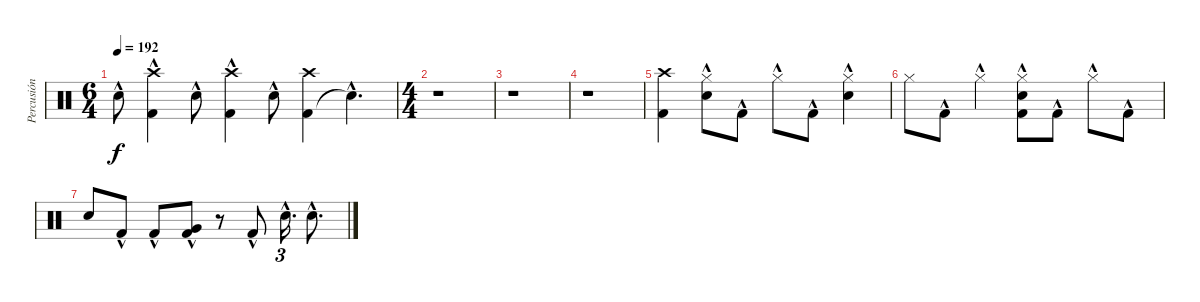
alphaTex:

\track ("Percusión" "Percusión") {instrument percussion}
\staff {score}
\articulation defaults
\ts (6 4)
\tempo 192
\clef neutral
\ks c "Electric Snare (hit)"{hac}.8{dy f}
("Kick (hit) 2"{hac} "Crash high (hit)"{hac}).4 "Electric Snare (hit)"{hac}.8 ("Crash high (hit)"{hac} "Kick (hit) 2"{hac}).4 "Electric Snare (hit)"{hac}.8 ("Kick (hit) 2" "Crash high (hit)").4 "Snare (hit)"{hac t}.4{d} |
\ts (4 4)
r.1 |
r.1 |
r.1 |
("Kick (hit) 2" "Crash high (hit)").4 ("Electric Snare (hit)"{hac} "Hi-Hat (closed)"{hac}).8 "Kick (hit) 2"{hac}.8 "Hi-Hat (closed)"{hac}.8 "Kick (hit) 2"{hac}.8 ("Electric Snare (hit)"{hac} "Hi-Hat (closed)"{hac}).4 |
"Hi-Hat (closed)".8 "Kick (hit) 2"{hac}.8 "Hi-Hat (closed)"{hac}.4 ("Kick (hit) 2"{hac} "Electric Snare (hit)"{hac} "Hi-Hat (closed)"{hac}).8 "Kick (hit) 2"{hac}.8 "Hi-Hat (closed)"{hac}.8 "Kick (hit) 2"{hac}.8 |
"Electric Snare (hit)".8 "Kick (hit) 2"{hac}.8 "Kick (hit) 2"{hac}.8 ("Kick (hit) 2"{hac} "Very Low Tom (hit)"{hac}).8 r.8 "Kick (hit) 2"{hac}.8 "Electric Snare (hit)"{hac}.16{d tu (3 2)} "Electric Snare (hit)"{hac}.8{d}
